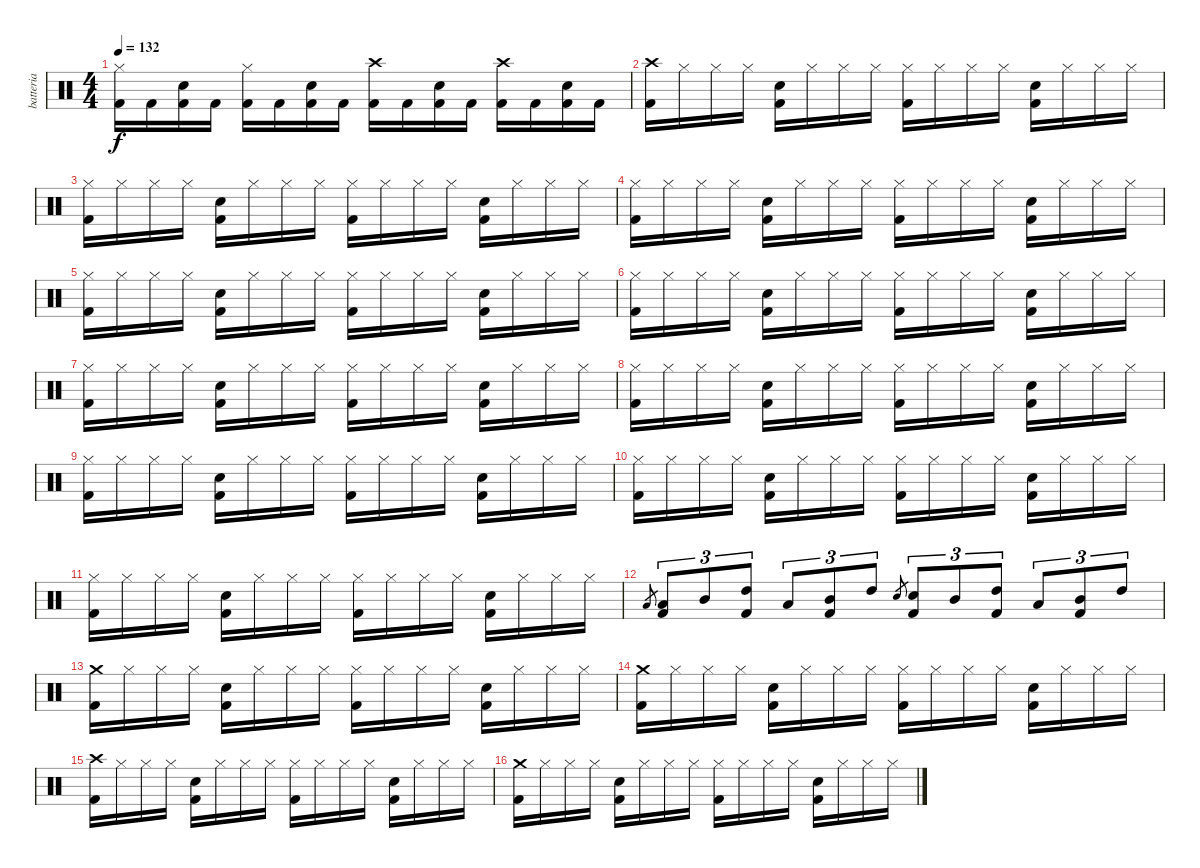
\track ("batteria" "batteria") {instrument percussion}
\staff {score}
\articulation defaults
\ts (4 4)
\tempo 132
\clef neutral
\ks c
("Kick (hit) 2" "Hi-Hat (closed)").16{dy f} "Kick (hit) 2".16 ("Kick (hit) 2" "Snare (hit) 2").16 "Kick (hit) 2".16 ("Kick (hit) 2" "Hi-Hat (closed)").16 "Kick (hit) 2".16 ("Kick (hit) 2" "Snare (hit) 2").16 "Kick (hit) 2".16 ("Kick (hit) 2" "Crash high (hit)").16 "Kick (hit) 2".16 ("Kick (hit) 2" "Snare (hit) 2").16 "Kick (hit) 2".16 ("Kick (hit) 2" "Crash high (hit)").16 "Kick (hit) 2".16 ("Kick (hit) 2" "Snare (hit) 2").16 "Kick (hit) 2".16 |
("Kick (hit) 2" "Crash high (hit)").16 "Hi-Hat (closed)".16 "Hi-Hat (closed)".16 "Hi-Hat (closed)".16 ("Kick (hit) 2" "Snare (hit) 2").16 "Hi-Hat (closed)".16 "Hi-Hat (closed)".16 "Hi-Hat (closed)".16 ("Kick (hit) 2" "Hi-Hat (closed)").16 "Hi-Hat (closed)".16 "Hi-Hat (closed)".16 "Hi-Hat (closed)".16 ("Kick (hit) 2" "Snare (hit) 2").16 "Hi-Hat (closed)".16 "Hi-Hat (closed)".16 "Hi-Hat (closed)".16 |
("Kick (hit) 2" "Hi-Hat (closed)").16 "Hi-Hat (closed)".16 "Hi-Hat (closed)".16 "Hi-Hat (closed)".16 ("Kick (hit) 2" "Snare (hit) 2").16 "Hi-Hat (closed)".16 "Hi-Hat (closed)".16 "Hi-Hat (closed)".16 ("Kick (hit) 2" "Hi-Hat (closed)").16 "Hi-Hat (closed)".16 "Hi-Hat (closed)".16 "Hi-Hat (closed)".16 ("Kick (hit) 2" "Snare (hit) 2").16 "Hi-Hat (closed)".16 "Hi-Hat (closed)".16 "Hi-Hat (closed)".16 |
("Kick (hit) 2" "Hi-Hat (closed)").16 "Hi-Hat (closed)".16 "Hi-Hat (closed)".16 "Hi-Hat (closed)".16 ("Kick (hit) 2" "Snare (hit) 2").16 "Hi-Hat (closed)".16 "Hi-Hat (closed)".16 "Hi-Hat (closed)".16 ("Kick (hit) 2" "Hi-Hat (closed)").16 "Hi-Hat (closed)".16 "Hi-Hat (closed)".16 "Hi-Hat (closed)".16 ("Kick (hit) 2" "Snare (hit) 2").16 "Hi-Hat (closed)".16 "Hi-Hat (closed)".16 "Hi-Hat (closed)".16 |
("Kick (hit) 2" "Hi-Hat (closed)").16 "Hi-Hat (closed)".16 "Hi-Hat (closed)".16 "Hi-Hat (closed)".16 ("Kick (hit) 2" "Snare (hit) 2").16 "Hi-Hat (closed)".16 "Hi-Hat (closed)".16 "Hi-Hat (closed)".16 ("Kick (hit) 2" "Hi-Hat (closed)").16 "Hi-Hat (closed)".16 "Hi-Hat (closed)".16 "Hi-Hat (closed)".16 ("Kick (hit) 2" "Snare (hit) 2").16 "Hi-Hat (closed)".16 "Hi-Hat (closed)".16 "Hi-Hat (closed)".16 |
("Kick (hit) 2" "Hi-Hat (closed)").16 "Hi-Hat (closed)".16 "Hi-Hat (closed)".16 "Hi-Hat (closed)".16 ("Kick (hit) 2" "Snare (hit) 2").16 "Hi-Hat (closed)".16 "Hi-Hat (closed)".16 "Hi-Hat (closed)".16 ("Kick (hit) 2" "Hi-Hat (closed)").16 "Hi-Hat (closed)".16 "Hi-Hat (closed)".16 "Hi-Hat (closed)".16 ("Kick (hit) 2" "Snare (hit) 2").16 "Hi-Hat (closed)".16 "Hi-Hat (closed)".16 "Hi-Hat (closed)".16 |
("Kick (hit) 2" "Hi-Hat (closed)").16 "Hi-Hat (closed)".16 "Hi-Hat (closed)".16 "Hi-Hat (closed)".16 ("Kick (hit) 2" "Snare (hit) 2").16 "Hi-Hat (closed)".16 "Hi-Hat (closed)".16 "Hi-Hat (closed)".16 ("Kick (hit) 2" "Hi-Hat (closed)").16 "Hi-Hat (closed)".16 "Hi-Hat (closed)".16 "Hi-Hat (closed)".16 ("Kick (hit) 2" "Snare (hit) 2").16 "Hi-Hat (closed)".16 "Hi-Hat (closed)".16 "Hi-Hat (closed)".16 |
("Kick (hit) 2" "Hi-Hat (closed)").16 "Hi-Hat (closed)".16 "Hi-Hat (closed)".16 "Hi-Hat (closed)".16 ("Kick (hit) 2" "Snare (hit) 2").16 "Hi-Hat (closed)".16 "Hi-Hat (closed)".16 "Hi-Hat (closed)".16 ("Kick (hit) 2" "Hi-Hat (closed)").16 "Hi-Hat (closed)".16 "Hi-Hat (closed)".16 "Hi-Hat (closed)".16 ("Kick (hit) 2" "Snare (hit) 2").16 "Hi-Hat (closed)".16 "Hi-Hat (closed)".16 "Hi-Hat (closed)".16 |
("Kick (hit) 2" "Hi-Hat (closed)").16 "Hi-Hat (closed)".16 "Hi-Hat (closed)".16 "Hi-Hat (closed)".16 ("Kick (hit) 2" "Snare (hit) 2").16 "Hi-Hat (closed)".16 "Hi-Hat (closed)".16 "Hi-Hat (closed)".16 ("Kick (hit) 2" "Hi-Hat (closed)").16 "Hi-Hat (closed)".16 "Hi-Hat (closed)".16 "Hi-Hat (closed)".16 ("Kick (hit) 2" "Snare (hit) 2").16 "Hi-Hat (closed)".16 "Hi-Hat (closed)".16 "Hi-Hat (closed)".16 |
("Kick (hit) 2" "Hi-Hat (closed)").16 "Hi-Hat (closed)".16 "Hi-Hat (closed)".16 "Hi-Hat (closed)".16 ("Kick (hit) 2" "Snare (hit) 2").16 "Hi-Hat (closed)".16 "Hi-Hat (closed)".16 "Hi-Hat (closed)".16 ("Kick (hit) 2" "Hi-Hat (closed)").16 "Hi-Hat (closed)".16 "Hi-Hat (closed)".16 "Hi-Hat (closed)".16 ("Kick (hit) 2" "Snare (hit) 2").16 "Hi-Hat (closed)".16 "Hi-Hat (closed)".16 "Hi-Hat (closed)".16 |
("Kick (hit) 2" "Hi-Hat (closed)").16 "Hi-Hat (closed)".16 "Hi-Hat (closed)".16 "Hi-Hat (closed)".16 ("Kick (hit) 2" "Snare (hit) 2").16 "Hi-Hat (closed)".16 "Hi-Hat (closed)".16 "Hi-Hat (closed)".16 ("Kick (hit) 2" "Hi-Hat (closed)").16 "Hi-Hat (closed)".16 "Hi-Hat (closed)".16 "Hi-Hat (closed)".16 ("Kick (hit) 2" "Snare (hit) 2").16 "Hi-Hat (closed)".16 "Hi-Hat (closed)".16 "Hi-Hat (closed)".16 |
"Low Tom (hit)".8{gr} ("Low Tom (hit)" "Kick (hit) 2").8{tu (3 2)} "Mid Tom (hit)".8{tu (3 2)} ("High Tom (hit)" "Kick (hit) 2").8{tu (3 2)} "Low Tom (hit)".8{tu (3 2)} ("Mid Tom (hit)" "Kick (hit) 2").8{tu (3 2)} "High Tom (hit)".8{tu (3 2)} "Snare (hit) 2".8{gr} ("Snare (hit) 2" "Kick (hit) 2").8{tu (3 2)} "Mid Tom (hit)".8{tu (3 2)} ("High Tom (hit)" "Kick (hit) 2").8{tu (3 2)} "Low Tom (hit)".8{tu (3 2)} ("Mid Tom (hit)" "Kick (hit) 2").8{tu (3 2)} "High Tom (hit)".8{tu (3 2)} |
("Kick (hit) 2" "Crash medium (hit)").16 "Hi-Hat (closed)".16 "Hi-Hat (closed)".16 "Hi-Hat (closed)".16 ("Kick (hit) 2" "Snare (hit) 2").16 "Hi-Hat (closed)".16 "Hi-Hat (closed)".16 "Hi-Hat (closed)".16 ("Kick (hit) 2" "Hi-Hat (closed)").16 "Hi-Hat (closed)".16 "Hi-Hat (closed)".16 "Hi-Hat (closed)".16 ("Kick (hit) 2" "Snare (hit) 2").16 "Hi-Hat (closed)".16 "Hi-Hat (closed)".16 "Hi-Hat (closed)".16 |
("Kick (hit) 2" "Crash medium (hit)").16 "Hi-Hat (closed)".16 "Hi-Hat (closed)".16 "Hi-Hat (closed)".16 ("Kick (hit) 2" "Snare (hit) 2").16 "Hi-Hat (closed)".16 "Hi-Hat (closed)".16 "Hi-Hat (closed)".16 ("Kick (hit) 2" "Hi-Hat (closed)").16 "Hi-Hat (closed)".16 "Hi-Hat (closed)".16 "Hi-Hat (closed)".16 ("Kick (hit) 2" "Snare (hit) 2").16 "Hi-Hat (closed)".16 "Hi-Hat (closed)".16 "Hi-Hat (closed)".16 |
("Kick (hit) 2" "Crash high (hit)").16 "Hi-Hat (closed)".16 "Hi-Hat (closed)".16 "Hi-Hat (closed)".16 ("Kick (hit) 2" "Snare (hit) 2").16 "Hi-Hat (closed)".16 "Hi-Hat (closed)".16 "Hi-Hat (closed)".16 ("Kick (hit) 2" "Hi-Hat (closed)").16 "Hi-Hat (closed)".16 "Hi-Hat (closed)".16 "Hi-Hat (closed)".16 ("Kick (hit) 2" "Snare (hit) 2").16 "Hi-Hat (closed)".16 "Hi-Hat (closed)".16 "Hi-Hat (closed)".16 |
("Kick (hit) 2" "Crash medium (hit)").16 "Hi-Hat (closed)".16 "Hi-Hat (closed)".16 "Hi-Hat (closed)".16 ("Kick (hit) 2" "Snare (hit) 2").16 "Hi-Hat (closed)".16 "Hi-Hat (closed)".16 "Hi-Hat (closed)".16 ("Kick (hit) 2" "Hi-Hat (closed)").16 "Hi-Hat (closed)".16 "Hi-Hat (closed)".16 "Hi-Hat (closed)".16 ("Kick (hit) 2" "Snare (hit) 2").16 "Hi-Hat (closed)".16 "Hi-Hat (closed)".16 "Hi-Hat (closed)".16
